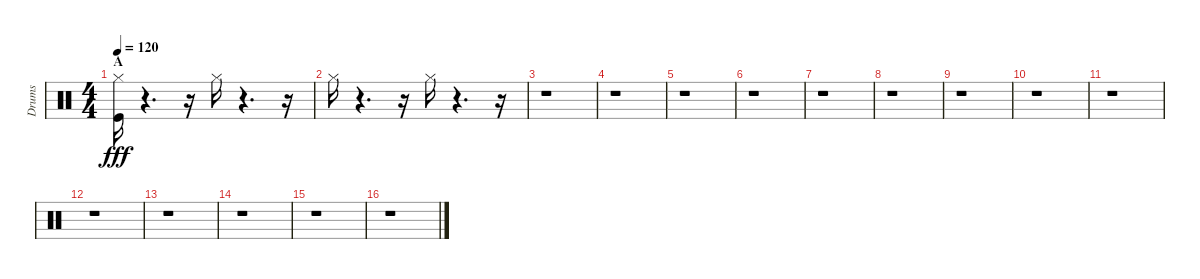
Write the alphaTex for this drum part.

\track ("Drums" "Drums") {instrument percussion}
\staff {score}
\articulation defaults
\ts (4 4)
\section ("" "A")
\tempo 120
\clef neutral
\ks c
("Kick (hit)" "Hi-Hat (closed)").16{dy fff} r.4{d} r.16 "Hi-Hat (closed)".16 r.4{d} r.16 |
"Hi-Hat (closed)".16 r.4{d} r.16 "Hi-Hat (closed)".16 r.4{d} r.16 |
r.1 |
r.1 |
r.1 |
r.1 |
r.1 |
r.1 |
r.1 |
r.1 |
r.1 |
r.1 |
r.1 |
r.1 |
r.1 |
r.1
